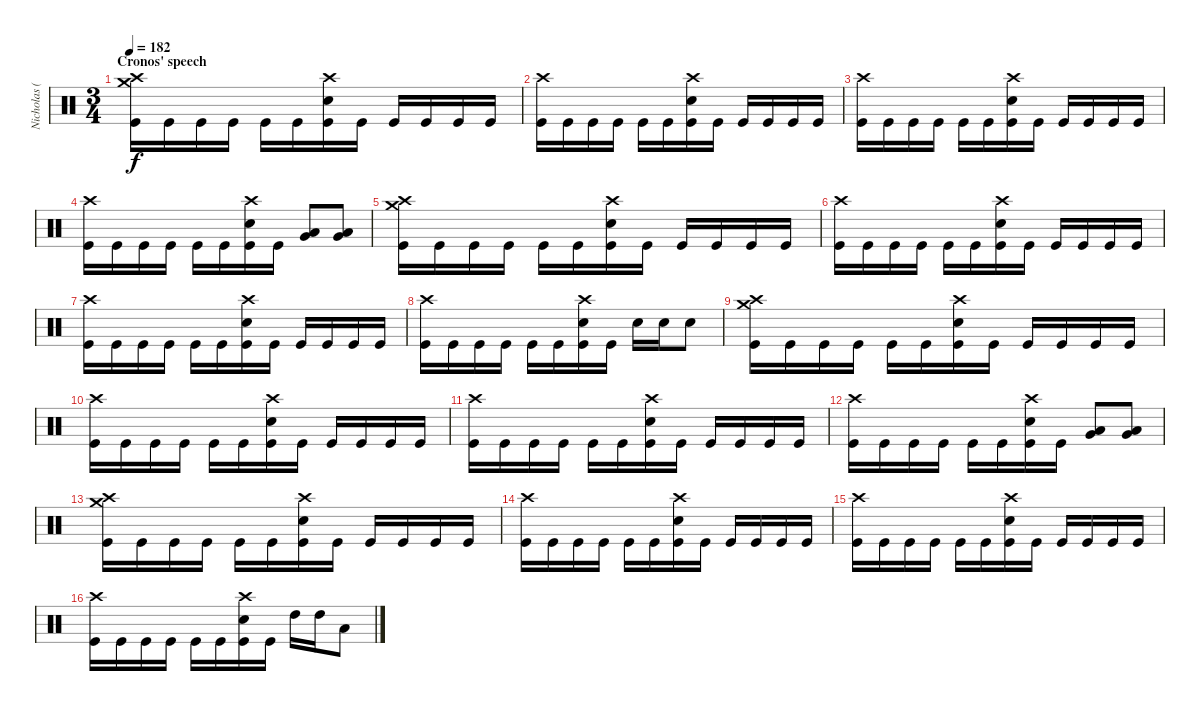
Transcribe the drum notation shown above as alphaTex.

\track ("Nicholas (Drums)" "Nicholas (") {instrument percussion}
\staff {score}
\articulation defaults
\ts (3 4)
\section ("" "Cronos' speech")
\tempo 182
\clef neutral
\ks c
("Crash high (hit)" "Crash medium (hit)" "Kick (hit)").16{dy f} "Kick (hit)".16 "Kick (hit)".16 "Kick (hit)".16 "Kick (hit)".16 "Kick (hit)".16 ("Crash high (hit)" "Electric Snare (hit)" "Kick (hit)").16 "Kick (hit)".16 "Kick (hit)".16 "Kick (hit)".16 "Kick (hit)".16 "Kick (hit)".16 |
("Crash high (hit)" "Kick (hit)").16 "Kick (hit)".16 "Kick (hit)".16 "Kick (hit)".16 "Kick (hit)".16 "Kick (hit)".16 ("Crash high (hit)" "Electric Snare (hit)" "Kick (hit)").16 "Kick (hit)".16 "Kick (hit)".16 "Kick (hit)".16 "Kick (hit)".16 "Kick (hit)".16 |
("Crash high (hit)" "Kick (hit)").16 "Kick (hit)".16 "Kick (hit)".16 "Kick (hit)".16 "Kick (hit)".16 "Kick (hit)".16 ("Crash high (hit)" "Electric Snare (hit)" "Kick (hit)").16 "Kick (hit)".16 "Kick (hit)".16 "Kick (hit)".16 "Kick (hit)".16 "Kick (hit)".16 |
("Crash high (hit)" "Kick (hit)").16 "Kick (hit)".16 "Kick (hit)".16 "Kick (hit)".16 "Kick (hit)".16 "Kick (hit)".16 ("Crash high (hit)" "Electric Snare (hit)" "Kick (hit)").16 "Kick (hit)".16 ("Low Tom (hit)" "Very Low Tom (hit)").8{bu 120} ("Low Tom (hit)" "Very Low Tom (hit)").8{bu 120} |
("Crash high (hit)" "Crash medium (hit)" "Kick (hit)").16 "Kick (hit)".16 "Kick (hit)".16 "Kick (hit)".16 "Kick (hit)".16 "Kick (hit)".16 ("Crash high (hit)" "Electric Snare (hit)" "Kick (hit)").16 "Kick (hit)".16 "Kick (hit)".16 "Kick (hit)".16 "Kick (hit)".16 "Kick (hit)".16 |
("Crash high (hit)" "Kick (hit)").16 "Kick (hit)".16 "Kick (hit)".16 "Kick (hit)".16 "Kick (hit)".16 "Kick (hit)".16 ("Crash high (hit)" "Electric Snare (hit)" "Kick (hit)").16 "Kick (hit)".16 "Kick (hit)".16 "Kick (hit)".16 "Kick (hit)".16 "Kick (hit)".16 |
("Crash high (hit)" "Kick (hit)").16 "Kick (hit)".16 "Kick (hit)".16 "Kick (hit)".16 "Kick (hit)".16 "Kick (hit)".16 ("Crash high (hit)" "Electric Snare (hit)" "Kick (hit)").16 "Kick (hit)".16 "Kick (hit)".16 "Kick (hit)".16 "Kick (hit)".16 "Kick (hit)".16 |
("Crash high (hit)" "Kick (hit)").16 "Kick (hit)".16 "Kick (hit)".16 "Kick (hit)".16 "Kick (hit)".16 "Kick (hit)".16 ("Crash high (hit)" "Electric Snare (hit)" "Kick (hit)").16 "Kick (hit)".16 "Electric Snare (hit)".16 "Electric Snare (hit)".16 "Electric Snare (hit)".8 |
("Crash high (hit)" "Crash medium (hit)" "Kick (hit)").16 "Kick (hit)".16 "Kick (hit)".16 "Kick (hit)".16 "Kick (hit)".16 "Kick (hit)".16 ("Crash high (hit)" "Electric Snare (hit)" "Kick (hit)").16 "Kick (hit)".16 "Kick (hit)".16 "Kick (hit)".16 "Kick (hit)".16 "Kick (hit)".16 |
("Crash high (hit)" "Kick (hit)").16 "Kick (hit)".16 "Kick (hit)".16 "Kick (hit)".16 "Kick (hit)".16 "Kick (hit)".16 ("Crash high (hit)" "Electric Snare (hit)" "Kick (hit)").16 "Kick (hit)".16 "Kick (hit)".16 "Kick (hit)".16 "Kick (hit)".16 "Kick (hit)".16 |
("Crash high (hit)" "Kick (hit)").16 "Kick (hit)".16 "Kick (hit)".16 "Kick (hit)".16 "Kick (hit)".16 "Kick (hit)".16 ("Crash high (hit)" "Electric Snare (hit)" "Kick (hit)").16 "Kick (hit)".16 "Kick (hit)".16 "Kick (hit)".16 "Kick (hit)".16 "Kick (hit)".16 |
("Crash high (hit)" "Kick (hit)").16 "Kick (hit)".16 "Kick (hit)".16 "Kick (hit)".16 "Kick (hit)".16 "Kick (hit)".16 ("Crash high (hit)" "Electric Snare (hit)" "Kick (hit)").16 "Kick (hit)".16 ("Low Tom (hit)" "Very Low Tom (hit)").8{bu 120} ("Low Tom (hit)" "Very Low Tom (hit)").8{bu 120} |
("Crash high (hit)" "Crash medium (hit)" "Kick (hit)").16 "Kick (hit)".16 "Kick (hit)".16 "Kick (hit)".16 "Kick (hit)".16 "Kick (hit)".16 ("Crash high (hit)" "Electric Snare (hit)" "Kick (hit)").16 "Kick (hit)".16 "Kick (hit)".16 "Kick (hit)".16 "Kick (hit)".16 "Kick (hit)".16 |
("Crash high (hit)" "Kick (hit)").16 "Kick (hit)".16 "Kick (hit)".16 "Kick (hit)".16 "Kick (hit)".16 "Kick (hit)".16 ("Crash high (hit)" "Electric Snare (hit)" "Kick (hit)").16 "Kick (hit)".16 "Kick (hit)".16 "Kick (hit)".16 "Kick (hit)".16 "Kick (hit)".16 |
("Crash high (hit)" "Kick (hit)").16 "Kick (hit)".16 "Kick (hit)".16 "Kick (hit)".16 "Kick (hit)".16 "Kick (hit)".16 ("Crash high (hit)" "Electric Snare (hit)" "Kick (hit)").16 "Kick (hit)".16 "Kick (hit)".16 "Kick (hit)".16 "Kick (hit)".16 "Kick (hit)".16 |
("Crash high (hit)" "Kick (hit)").16 "Kick (hit)".16 "Kick (hit)".16 "Kick (hit)".16 "Kick (hit)".16 "Kick (hit)".16 ("Crash high (hit)" "Electric Snare (hit)" "Kick (hit)").16 "Kick (hit)".16 "High Tom (hit)".16 "High Tom (hit)".16 "Low Tom (hit)".8
